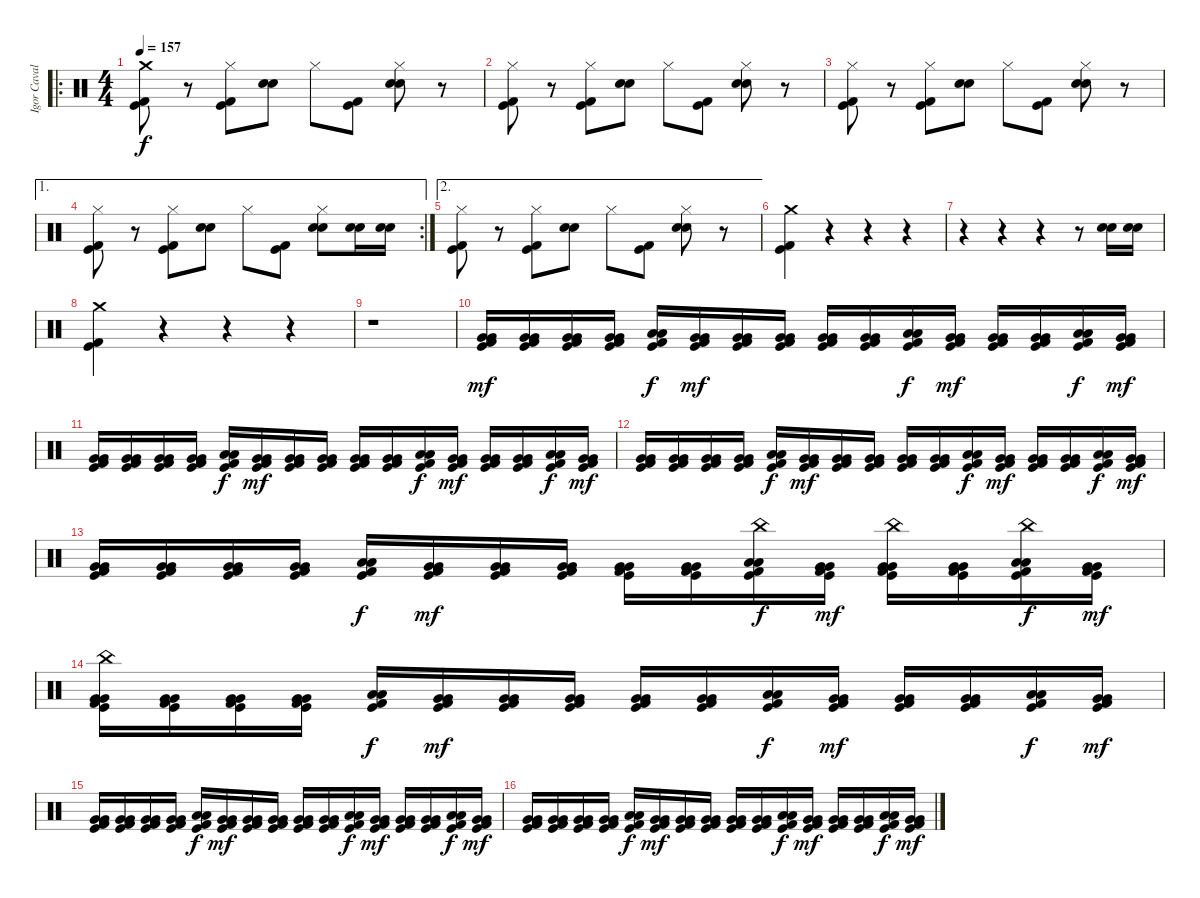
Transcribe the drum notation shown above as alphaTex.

\track ("Igor Cavalera" "Igor Caval") {instrument percussion}
\staff {score}
\articulation defaults
\ro
\ts (4 4)
\tempo 157
\clef neutral
\ks c
("Crash medium (hit)" "Kick (hit) 2" "Kick (hit)").8{dy f} r.8 ("Hi-Hat (closed)" "Kick (hit) 2" "Kick (hit)").8 ("Electric Snare (hit)" "Snare (hit) 2").8 "Hi-Hat (closed)".8 ("Kick (hit) 2" "Kick (hit)").8 ("Hi-Hat (closed)" "Electric Snare (hit)" "Snare (hit) 2").8 r.8 |
("Hi-Hat (closed)" "Kick (hit) 2" "Kick (hit)").8 r.8 ("Hi-Hat (closed)" "Kick (hit) 2" "Kick (hit)").8 ("Electric Snare (hit)" "Snare (hit) 2").8 "Hi-Hat (closed)".8 ("Kick (hit) 2" "Kick (hit)").8 ("Hi-Hat (closed)" "Electric Snare (hit)" "Snare (hit) 2").8 r.8 |
("Hi-Hat (closed)" "Kick (hit) 2" "Kick (hit)").8 r.8 ("Hi-Hat (closed)" "Kick (hit) 2" "Kick (hit)").8 ("Electric Snare (hit)" "Snare (hit) 2").8 "Hi-Hat (closed)".8 ("Kick (hit) 2" "Kick (hit)").8 ("Hi-Hat (closed)" "Electric Snare (hit)" "Snare (hit) 2").8 r.8 |
\ae 1
\rc 2
("Hi-Hat (closed)" "Kick (hit) 2" "Kick (hit)").8 r.8 ("Hi-Hat (closed)" "Kick (hit) 2" "Kick (hit)").8 ("Electric Snare (hit)" "Snare (hit) 2").8 "Hi-Hat (closed)".8 ("Kick (hit) 2" "Kick (hit)").8 ("Hi-Hat (closed)" "Electric Snare (hit)" "Snare (hit) 2").8 ("Electric Snare (hit)" "Snare (hit) 2").16 ("Electric Snare (hit)" "Snare (hit) 2").16 |
\ae 2
("Hi-Hat (closed)" "Kick (hit) 2" "Kick (hit)").8 r.8 ("Hi-Hat (closed)" "Kick (hit) 2" "Kick (hit)").8 ("Electric Snare (hit)" "Snare (hit) 2").8 "Hi-Hat (closed)".8 ("Kick (hit) 2" "Kick (hit)").8 ("Hi-Hat (closed)" "Electric Snare (hit)" "Snare (hit) 2").8 r.8 |
("Crash medium (hit)" "Kick (hit) 2" "Kick (hit)").4 r.4 r.4 r.4 |
r.4 r.4 r.4 r.8 ("Electric Snare (hit)" "Snare (hit) 2").16 ("Electric Snare (hit)" "Snare (hit) 2").16 |
("Crash medium (hit)" "Kick (hit) 2" "Kick (hit)").4 r.4 r.4 r.4 |
r.1 |
("Very Low Tom (hit)" "Very Low Tom (hit)" "Kick (hit) 2" "Kick (hit)").16{dy mf} ("Very Low Tom (hit)" "Very Low Tom (hit)" "Kick (hit) 2" "Kick (hit)").16 ("Very Low Tom (hit)" "Very Low Tom (hit)" "Kick (hit) 2" "Kick (hit)").16 ("Very Low Tom (hit)" "Very Low Tom (hit)" "Kick (hit) 2" "Kick (hit)").16 ("Low Floor Tom (hit)" "Low Floor Tom (hit)" "Kick (hit) 2" "Kick (hit)").16{dy f} ("Very Low Tom (hit)" "Very Low Tom (hit)" "Kick (hit) 2" "Kick (hit)").16{dy mf} ("Very Low Tom (hit)" "Very Low Tom (hit)" "Kick (hit) 2" "Kick (hit)").16 ("Very Low Tom (hit)" "Very Low Tom (hit)" "Kick (hit) 2" "Kick (hit)").16 ("Very Low Tom (hit)" "Very Low Tom (hit)" "Kick (hit) 2" "Kick (hit)").16 ("Very Low Tom (hit)" "Very Low Tom (hit)" "Kick (hit) 2" "Kick (hit)").16 ("Low Floor Tom (hit)" "Low Floor Tom (hit)" "Kick (hit) 2" "Kick (hit)").16{dy f} ("Very Low Tom (hit)" "Very Low Tom (hit)" "Kick (hit) 2" "Kick (hit)").16{dy mf} ("Very Low Tom (hit)" "Very Low Tom (hit)" "Kick (hit) 2" "Kick (hit)").16 ("Very Low Tom (hit)" "Very Low Tom (hit)" "Kick (hit) 2" "Kick (hit)").16 ("Low Floor Tom (hit)" "Low Floor Tom (hit)" "Kick (hit) 2" "Kick (hit)").16{dy f} ("Very Low Tom (hit)" "Very Low Tom (hit)" "Kick (hit) 2" "Kick (hit)").16{dy mf} |
("Very Low Tom (hit)" "Very Low Tom (hit)" "Kick (hit) 2" "Kick (hit)").16 ("Very Low Tom (hit)" "Very Low Tom (hit)" "Kick (hit) 2" "Kick (hit)").16 ("Very Low Tom (hit)" "Very Low Tom (hit)" "Kick (hit) 2" "Kick (hit)").16 ("Very Low Tom (hit)" "Very Low Tom (hit)" "Kick (hit) 2" "Kick (hit)").16 ("Low Floor Tom (hit)" "Low Floor Tom (hit)" "Kick (hit) 2" "Kick (hit)").16{dy f} ("Very Low Tom (hit)" "Very Low Tom (hit)" "Kick (hit) 2" "Kick (hit)").16{dy mf} ("Very Low Tom (hit)" "Very Low Tom (hit)" "Kick (hit) 2" "Kick (hit)").16 ("Very Low Tom (hit)" "Very Low Tom (hit)" "Kick (hit) 2" "Kick (hit)").16 ("Very Low Tom (hit)" "Very Low Tom (hit)" "Kick (hit) 2" "Kick (hit)").16 ("Very Low Tom (hit)" "Very Low Tom (hit)" "Kick (hit) 2" "Kick (hit)").16 ("Low Floor Tom (hit)" "Low Floor Tom (hit)" "Kick (hit) 2" "Kick (hit)").16{dy f} ("Very Low Tom (hit)" "Very Low Tom (hit)" "Kick (hit) 2" "Kick (hit)").16{dy mf} ("Very Low Tom (hit)" "Very Low Tom (hit)" "Kick (hit) 2" "Kick (hit)").16 ("Very Low Tom (hit)" "Very Low Tom (hit)" "Kick (hit) 2" "Kick (hit)").16 ("Low Floor Tom (hit)" "Low Floor Tom (hit)" "Kick (hit) 2" "Kick (hit)").16{dy f} ("Very Low Tom (hit)" "Very Low Tom (hit)" "Kick (hit) 2" "Kick (hit)").16{dy mf} |
("Very Low Tom (hit)" "Very Low Tom (hit)" "Kick (hit) 2" "Kick (hit)").16 ("Very Low Tom (hit)" "Very Low Tom (hit)" "Kick (hit) 2" "Kick (hit)").16 ("Very Low Tom (hit)" "Very Low Tom (hit)" "Kick (hit) 2" "Kick (hit)").16 ("Very Low Tom (hit)" "Very Low Tom (hit)" "Kick (hit) 2" "Kick (hit)").16 ("Low Floor Tom (hit)" "Low Floor Tom (hit)" "Kick (hit) 2" "Kick (hit)").16{dy f} ("Very Low Tom (hit)" "Very Low Tom (hit)" "Kick (hit) 2" "Kick (hit)").16{dy mf} ("Very Low Tom (hit)" "Very Low Tom (hit)" "Kick (hit) 2" "Kick (hit)").16 ("Very Low Tom (hit)" "Very Low Tom (hit)" "Kick (hit) 2" "Kick (hit)").16 ("Very Low Tom (hit)" "Very Low Tom (hit)" "Kick (hit) 2" "Kick (hit)").16 ("Very Low Tom (hit)" "Very Low Tom (hit)" "Kick (hit) 2" "Kick (hit)").16 ("Low Floor Tom (hit)" "Low Floor Tom (hit)" "Kick (hit) 2" "Kick (hit)").16{dy f} ("Very Low Tom (hit)" "Very Low Tom (hit)" "Kick (hit) 2" "Kick (hit)").16{dy mf} ("Very Low Tom (hit)" "Very Low Tom (hit)" "Kick (hit) 2" "Kick (hit)").16 ("Very Low Tom (hit)" "Very Low Tom (hit)" "Kick (hit) 2" "Kick (hit)").16 ("Low Floor Tom (hit)" "Low Floor Tom (hit)" "Kick (hit) 2" "Kick (hit)").16{dy f} ("Very Low Tom (hit)" "Very Low Tom (hit)" "Kick (hit) 2" "Kick (hit)").16{dy mf} |
("Very Low Tom (hit)" "Very Low Tom (hit)" "Kick (hit) 2" "Kick (hit)").16 ("Very Low Tom (hit)" "Very Low Tom (hit)" "Kick (hit) 2" "Kick (hit)").16 ("Very Low Tom (hit)" "Very Low Tom (hit)" "Kick (hit) 2" "Kick (hit)").16 ("Very Low Tom (hit)" "Very Low Tom (hit)" "Kick (hit) 2" "Kick (hit)").16 ("Low Floor Tom (hit)" "Low Floor Tom (hit)" "Kick (hit) 2" "Kick (hit)").16{dy f} ("Very Low Tom (hit)" "Very Low Tom (hit)" "Kick (hit) 2" "Kick (hit)").16{dy mf} ("Very Low Tom (hit)" "Very Low Tom (hit)" "Kick (hit) 2" "Kick (hit)").16 ("Very Low Tom (hit)" "Very Low Tom (hit)" "Kick (hit) 2" "Kick (hit)").16 ("Very Low Tom (hit)" "Very Low Tom (hit)" "Kick (hit) 2" "Kick (hit)").16 ("Very Low Tom (hit)" "Very Low Tom (hit)" "Kick (hit) 2" "Kick (hit)").16 ("China (hit)" "Low Floor Tom (hit)" "Low Floor Tom (hit)" "Kick (hit) 2" "Kick (hit)").16{dy f} ("Very Low Tom (hit)" "Very Low Tom (hit)" "Kick (hit) 2" "Kick (hit)").16{dy mf} ("China (hit)" "Very Low Tom (hit)" "Very Low Tom (hit)" "Kick (hit) 2" "Kick (hit)").16 ("Very Low Tom (hit)" "Very Low Tom (hit)" "Kick (hit) 2" "Kick (hit)").16 ("China (hit)" "Low Floor Tom (hit)" "Low Floor Tom (hit)" "Kick (hit) 2" "Kick (hit)").16{dy f} ("Very Low Tom (hit)" "Very Low Tom (hit)" "Kick (hit) 2" "Kick (hit)").16{dy mf} |
("China (hit)" "Very Low Tom (hit)" "Very Low Tom (hit)" "Kick (hit) 2" "Kick (hit)").16 ("Very Low Tom (hit)" "Very Low Tom (hit)" "Kick (hit) 2" "Kick (hit)").16 ("Very Low Tom (hit)" "Very Low Tom (hit)" "Kick (hit) 2" "Kick (hit)").16 ("Very Low Tom (hit)" "Very Low Tom (hit)" "Kick (hit) 2" "Kick (hit)").16 ("Low Floor Tom (hit)" "Low Floor Tom (hit)" "Kick (hit) 2" "Kick (hit)").16{dy f} ("Very Low Tom (hit)" "Very Low Tom (hit)" "Kick (hit) 2" "Kick (hit)").16{dy mf} ("Very Low Tom (hit)" "Very Low Tom (hit)" "Kick (hit) 2" "Kick (hit)").16 ("Very Low Tom (hit)" "Very Low Tom (hit)" "Kick (hit) 2" "Kick (hit)").16 ("Very Low Tom (hit)" "Very Low Tom (hit)" "Kick (hit) 2" "Kick (hit)").16 ("Very Low Tom (hit)" "Very Low Tom (hit)" "Kick (hit) 2" "Kick (hit)").16 ("Low Floor Tom (hit)" "Low Floor Tom (hit)" "Kick (hit) 2" "Kick (hit)").16{dy f} ("Very Low Tom (hit)" "Very Low Tom (hit)" "Kick (hit) 2" "Kick (hit)").16{dy mf} ("Very Low Tom (hit)" "Very Low Tom (hit)" "Kick (hit) 2" "Kick (hit)").16 ("Very Low Tom (hit)" "Very Low Tom (hit)" "Kick (hit) 2" "Kick (hit)").16 ("Low Floor Tom (hit)" "Low Floor Tom (hit)" "Kick (hit) 2" "Kick (hit)").16{dy f} ("Very Low Tom (hit)" "Very Low Tom (hit)" "Kick (hit) 2" "Kick (hit)").16{dy mf} |
("Very Low Tom (hit)" "Very Low Tom (hit)" "Kick (hit) 2" "Kick (hit)").16 ("Very Low Tom (hit)" "Very Low Tom (hit)" "Kick (hit) 2" "Kick (hit)").16 ("Very Low Tom (hit)" "Very Low Tom (hit)" "Kick (hit) 2" "Kick (hit)").16 ("Very Low Tom (hit)" "Very Low Tom (hit)" "Kick (hit) 2" "Kick (hit)").16 ("Low Floor Tom (hit)" "Low Floor Tom (hit)" "Kick (hit) 2" "Kick (hit)").16{dy f} ("Very Low Tom (hit)" "Very Low Tom (hit)" "Kick (hit) 2" "Kick (hit)").16{dy mf} ("Very Low Tom (hit)" "Very Low Tom (hit)" "Kick (hit) 2" "Kick (hit)").16 ("Very Low Tom (hit)" "Very Low Tom (hit)" "Kick (hit) 2" "Kick (hit)").16 ("Very Low Tom (hit)" "Very Low Tom (hit)" "Kick (hit) 2" "Kick (hit)").16 ("Very Low Tom (hit)" "Very Low Tom (hit)" "Kick (hit) 2" "Kick (hit)").16 ("Low Floor Tom (hit)" "Low Floor Tom (hit)" "Kick (hit) 2" "Kick (hit)").16{dy f} ("Very Low Tom (hit)" "Very Low Tom (hit)" "Kick (hit) 2" "Kick (hit)").16{dy mf} ("Very Low Tom (hit)" "Very Low Tom (hit)" "Kick (hit) 2" "Kick (hit)").16 ("Very Low Tom (hit)" "Very Low Tom (hit)" "Kick (hit) 2" "Kick (hit)").16 ("Low Floor Tom (hit)" "Low Floor Tom (hit)" "Kick (hit) 2" "Kick (hit)").16{dy f} ("Very Low Tom (hit)" "Very Low Tom (hit)" "Kick (hit) 2" "Kick (hit)").16{dy mf} |
("Very Low Tom (hit)" "Very Low Tom (hit)" "Kick (hit) 2" "Kick (hit)").16 ("Very Low Tom (hit)" "Very Low Tom (hit)" "Kick (hit) 2" "Kick (hit)").16 ("Very Low Tom (hit)" "Very Low Tom (hit)" "Kick (hit) 2" "Kick (hit)").16 ("Very Low Tom (hit)" "Very Low Tom (hit)" "Kick (hit) 2" "Kick (hit)").16 ("Low Floor Tom (hit)" "Low Floor Tom (hit)" "Kick (hit) 2" "Kick (hit)").16{dy f} ("Very Low Tom (hit)" "Very Low Tom (hit)" "Kick (hit) 2" "Kick (hit)").16{dy mf} ("Very Low Tom (hit)" "Very Low Tom (hit)" "Kick (hit) 2" "Kick (hit)").16 ("Very Low Tom (hit)" "Very Low Tom (hit)" "Kick (hit) 2" "Kick (hit)").16 ("Very Low Tom (hit)" "Very Low Tom (hit)" "Kick (hit) 2" "Kick (hit)").16 ("Very Low Tom (hit)" "Very Low Tom (hit)" "Kick (hit) 2" "Kick (hit)").16 ("Low Floor Tom (hit)" "Low Floor Tom (hit)" "Kick (hit) 2" "Kick (hit)").16{dy f} ("Very Low Tom (hit)" "Very Low Tom (hit)" "Kick (hit) 2" "Kick (hit)").16{dy mf} ("Very Low Tom (hit)" "Very Low Tom (hit)" "Kick (hit) 2" "Kick (hit)").16 ("Very Low Tom (hit)" "Very Low Tom (hit)" "Kick (hit) 2" "Kick (hit)").16 ("Low Floor Tom (hit)" "Low Floor Tom (hit)" "Kick (hit) 2" "Kick (hit)").16{dy f} ("Very Low Tom (hit)" "Very Low Tom (hit)" "Kick (hit) 2" "Kick (hit)").16{dy mf}
